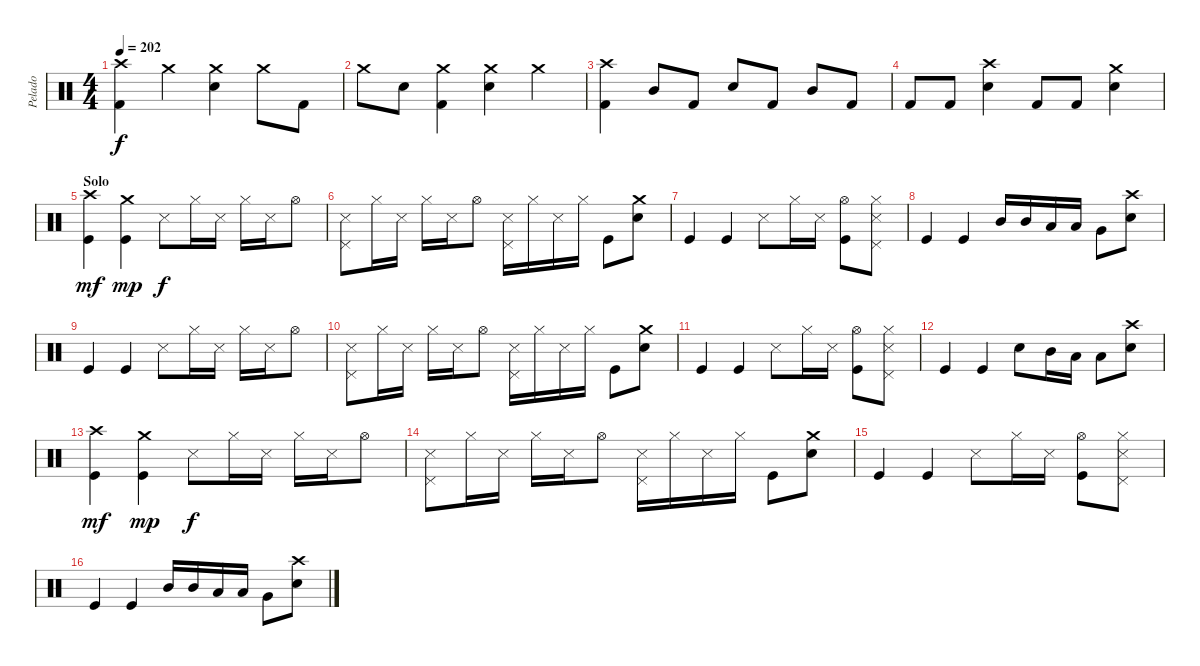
\track ("Pelado" "Pelado") {instrument percussion}
\staff {score}
\articulation defaults
\ts (4 4)
\tempo 202
\clef neutral
\ks c
("Crash high (hit)" "Kick (hit) 2").4{dy f} "Crash medium (hit)".4 ("Crash medium (hit)" "Electric Snare (hit)").4 "Crash medium (hit)".8 "Kick (hit) 2".8 |
"Crash medium (hit)".8 "Electric Snare (hit)".8 ("Crash medium (hit)" "Kick (hit) 2").4 ("Crash medium (hit)" "Electric Snare (hit)").4 "Crash medium (hit)".4 |
("Crash high (hit)" "Kick (hit) 2").4 "Mid Tom (hit)".8 "Kick (hit) 2".8 "Electric Snare (hit)".8 "Kick (hit) 2".8 "Mid Tom (hit)".8 "Kick (hit) 2".8 |
"Kick (hit) 2".8 "Kick (hit) 2".8 ("Crash high (hit)" "Electric Snare (hit)").4 "Kick (hit) 2".8 "Kick (hit) 2".8 ("Crash medium (hit)" "Electric Snare (hit)").4 |
\section ("" "Solo")
("Crash high (hit)" "Kick (hit)").4{dy mf volume 16} ("Crash medium (hit)" "Kick (hit)").4{dy mp} "Snare (side stick) 3".8{dy f} "Hi-Hat (closed)".16 "Snare (side stick) 3".16 "Hi-Hat (closed)".16 "Snare (side stick) 3".16 "Hi-Hat (open)".8 |
("Snare (side stick) 3" "Pedal Hi-Hat (hit)").8 "Hi-Hat (closed)".16 "Snare (side stick) 3".16 "Hi-Hat (closed)".16 "Snare (side stick) 3".16 "Hi-Hat (open)".8 ("Snare (side stick) 3" "Pedal Hi-Hat (hit)").16 "Hi-Hat (closed)".16 "Snare (side stick) 3".16 "Hi-Hat (closed)".16 "Kick (hit)".8 ("Crash medium (hit)" "Electric Snare (hit)").8 |
"Kick (hit)".4 "Kick (hit)".4 "Snare (side stick) 3".8 "Hi-Hat (closed)".16 "Snare (side stick) 3".16 ("Hi-Hat (open)" "Kick (hit)").8 ("Hi-Hat (closed)" "Snare (side stick) 3" "Pedal Hi-Hat (hit)").8 |
"Kick (hit)".4 "Kick (hit)".4 "Mid Tom (hit)".16 "Mid Tom (hit)".16 "Low Tom (hit)".16 "Low Tom (hit)".16 "Very Low Tom (hit)".8 ("Crash high (hit)" "Electric Snare (hit)").8 |
"Kick (hit)".4 "Kick (hit)".4 "Snare (side stick) 3".8 "Hi-Hat (closed)".16 "Snare (side stick) 3".16 "Hi-Hat (closed)".16 "Snare (side stick) 3".16 "Hi-Hat (open)".8 |
("Snare (side stick) 3" "Pedal Hi-Hat (hit)").8 "Hi-Hat (closed)".16 "Snare (side stick) 3".16 "Hi-Hat (closed)".16 "Snare (side stick) 3".16 "Hi-Hat (open)".8 ("Snare (side stick) 3" "Pedal Hi-Hat (hit)").16 "Hi-Hat (closed)".16 "Snare (side stick) 3".16 "Hi-Hat (closed)".16 "Kick (hit)".8 ("Crash medium (hit)" "Electric Snare (hit)").8 |
"Kick (hit)".4 "Kick (hit)".4 "Snare (side stick) 3".8 "Hi-Hat (closed)".16 "Snare (side stick) 3".16 ("Hi-Hat (open)" "Kick (hit)").8 ("Hi-Hat (closed)" "Snare (side stick) 3" "Pedal Hi-Hat (hit)").8 |
"Kick (hit)".4 "Kick (hit)".4 "Electric Snare (hit)".8 "Mid Tom (hit)".16 "Low Tom (hit)".16 "Low Tom (hit)".8 ("Crash high (hit)" "Electric Snare (hit)").8 |
("Crash high (hit)" "Kick (hit)").4{dy mf} ("Crash medium (hit)" "Kick (hit)").4{dy mp} "Snare (side stick) 3".8{dy f} "Hi-Hat (closed)".16 "Snare (side stick) 3".16 "Hi-Hat (closed)".16 "Snare (side stick) 3".16 "Hi-Hat (open)".8 |
("Snare (side stick) 3" "Pedal Hi-Hat (hit)").8 "Hi-Hat (closed)".16 "Snare (side stick) 3".16 "Hi-Hat (closed)".16 "Snare (side stick) 3".16 "Hi-Hat (open)".8 ("Snare (side stick) 3" "Pedal Hi-Hat (hit)").16 "Hi-Hat (closed)".16 "Snare (side stick) 3".16 "Hi-Hat (closed)".16 "Kick (hit)".8 ("Crash medium (hit)" "Electric Snare (hit)").8 |
"Kick (hit)".4 "Kick (hit)".4 "Snare (side stick) 3".8 "Hi-Hat (closed)".16 "Snare (side stick) 3".16 ("Hi-Hat (open)" "Kick (hit)").8 ("Hi-Hat (closed)" "Snare (side stick) 3" "Pedal Hi-Hat (hit)").8 |
"Kick (hit)".4 "Kick (hit)".4 "Mid Tom (hit)".16 "Mid Tom (hit)".16 "Low Tom (hit)".16 "Low Tom (hit)".16 "Very Low Tom (hit)".8 ("Crash high (hit)" "Electric Snare (hit)").8
